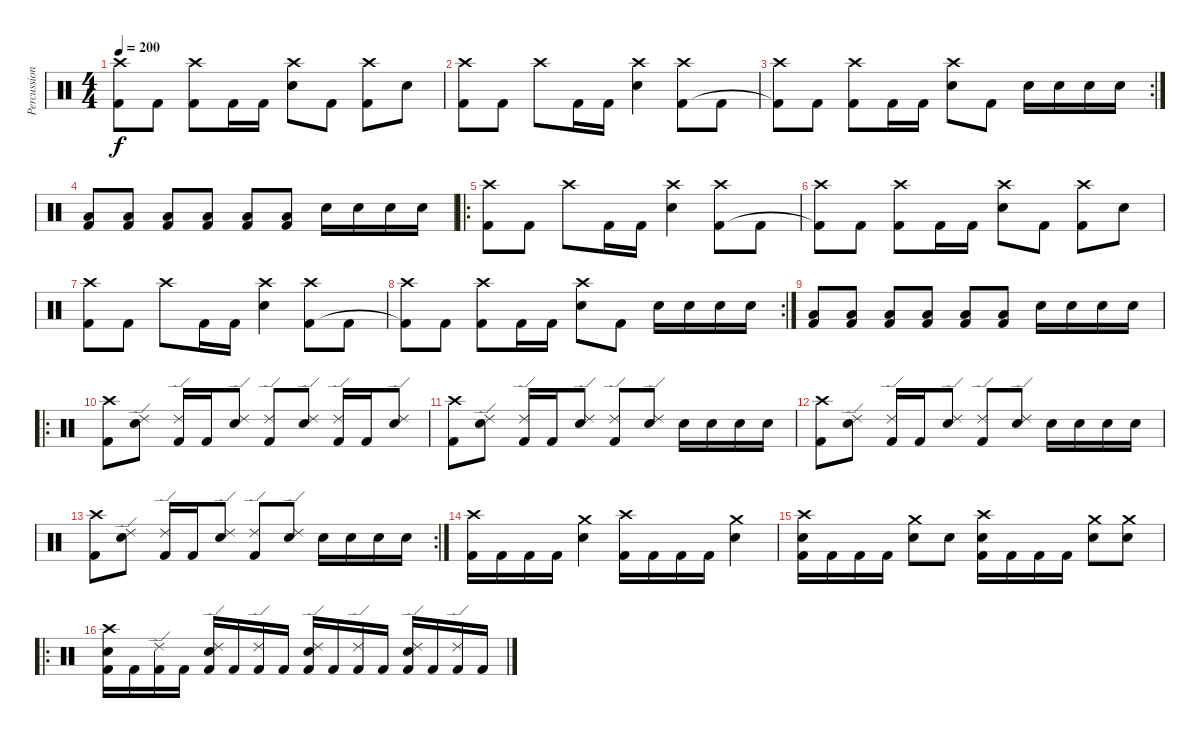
\track ("Percussions" "Percussion") {instrument percussion}
\staff {score}
\articulation defaults
\ts (4 4)
\tempo 200
\clef neutral
\ks c
("Crash high (hit)" "Kick (hit) 2"{t}).8{dy f} "Kick (hit) 2".8 ("Crash high (hit)" "Kick (hit) 2").8 "Kick (hit) 2".16 "Kick (hit) 2".16 ("Crash high (hit)" "Snare (hit) 2").8 "Kick (hit) 2".8 ("Crash high (hit)" "Kick (hit) 2").8 "Snare (hit) 2".8 |
("Crash high (hit)" "Kick (hit) 2").8 "Kick (hit) 2".8 "Crash high (hit)".8 "Kick (hit) 2".16 "Kick (hit) 2".16 ("Crash high (hit)" "Snare (hit) 2").4 ("Crash high (hit)" "Kick (hit) 2").8 "Kick (hit) 2".8 |
\rc 2
("Crash high (hit)" "Kick (hit) 2"{t}).8 "Kick (hit) 2".8 ("Crash high (hit)" "Kick (hit) 2").8 "Kick (hit) 2".16 "Kick (hit) 2".16 ("Crash high (hit)" "Snare (hit) 2").8 "Kick (hit) 2".8 "Snare (hit) 2".16 "Snare (hit) 2".16 "Snare (hit) 2".16 "Snare (hit) 2".16 |
("Low Floor Tom (hit)" "Kick (hit) 2").8 ("Low Floor Tom (hit)" "Kick (hit) 2").8 ("Low Floor Tom (hit)" "Kick (hit) 2").8 ("Low Floor Tom (hit)" "Kick (hit) 2").8 ("Low Floor Tom (hit)" "Kick (hit) 2").8 ("Low Floor Tom (hit)" "Kick (hit) 2").8 "Snare (hit) 2".16 "Snare (hit) 2".16 "Snare (hit) 2".16 "Snare (hit) 2".16 |
\ro
("Crash high (hit)" "Kick (hit) 2").8 "Kick (hit) 2".8 "Crash high (hit)".8 "Kick (hit) 2".16 "Kick (hit) 2".16 ("Crash high (hit)" "Snare (hit) 2").4 ("Crash high (hit)" "Kick (hit) 2").8 "Kick (hit) 2".8 |
("Crash high (hit)" "Kick (hit) 2"{t}).8 "Kick (hit) 2".8 ("Crash high (hit)" "Kick (hit) 2").8 "Kick (hit) 2".16 "Kick (hit) 2".16 ("Crash high (hit)" "Snare (hit) 2").8 "Kick (hit) 2".8 ("Crash high (hit)" "Kick (hit) 2").8 "Snare (hit) 2".8 |
("Crash high (hit)" "Kick (hit) 2").8 "Kick (hit) 2".8 "Crash high (hit)".8 "Kick (hit) 2".16 "Kick (hit) 2".16 ("Crash high (hit)" "Snare (hit) 2").4 ("Crash high (hit)" "Kick (hit) 2").8 "Kick (hit) 2".8 |
\rc 2
("Crash high (hit)" "Kick (hit) 2"{t}).8 "Kick (hit) 2".8 ("Crash high (hit)" "Kick (hit) 2").8 "Kick (hit) 2".16 "Kick (hit) 2".16 ("Crash high (hit)" "Snare (hit) 2").8 "Kick (hit) 2".8 "Snare (hit) 2".16 "Snare (hit) 2".16 "Snare (hit) 2".16 "Snare (hit) 2".16 |
("Low Floor Tom (hit)" "Kick (hit) 2").8 ("Low Floor Tom (hit)" "Kick (hit) 2").8 ("Low Floor Tom (hit)" "Kick (hit) 2").8 ("Low Floor Tom (hit)" "Kick (hit) 2").8 ("Low Floor Tom (hit)" "Kick (hit) 2").8 ("Low Floor Tom (hit)" "Kick (hit) 2").8 "Snare (hit) 2".16 "Snare (hit) 2".16 "Snare (hit) 2".16 "Snare (hit) 2".16 |
\ro
("Crash high (hit)" "Kick (hit) 2").8 ("Ride (edge) 2" "Snare (hit) 2").8 ("Ride (edge) 2" "Kick (hit) 2").16 "Kick (hit) 2".16 ("Ride (edge) 2" "Snare (hit) 2").8 ("Ride (edge) 2" "Kick (hit) 2").8 ("Ride (edge) 2" "Snare (hit) 2").8 ("Ride (edge) 2" "Kick (hit) 2").16 "Kick (hit) 2".16 ("Ride (edge) 2" "Snare (hit) 2").8 |
("Crash high (hit)" "Kick (hit) 2").8 ("Ride (edge) 2" "Snare (hit) 2").8 ("Ride (edge) 2" "Kick (hit) 2").16 "Kick (hit) 2".16 ("Ride (edge) 2" "Snare (hit) 2").8 ("Ride (edge) 2" "Kick (hit) 2").8 ("Ride (edge) 2" "Snare (hit) 2").8 "Snare (hit) 2".16 "Snare (hit) 2".16 "Snare (hit) 2".16 "Snare (hit) 2".16 |
("Crash high (hit)" "Kick (hit) 2").8 ("Ride (edge) 2" "Snare (hit) 2").8 ("Ride (edge) 2" "Kick (hit) 2").16 "Kick (hit) 2".16 ("Ride (edge) 2" "Snare (hit) 2").8 ("Ride (edge) 2" "Kick (hit) 2").8 ("Ride (edge) 2" "Snare (hit) 2").8 "Snare (hit) 2".16 "Snare (hit) 2".16 "Snare (hit) 2".16 "Snare (hit) 2".16 |
\rc 2
("Crash high (hit)" "Kick (hit) 2").8 ("Ride (edge) 2" "Snare (hit) 2").8 ("Ride (edge) 2" "Kick (hit) 2").16 "Kick (hit) 2".16 ("Ride (edge) 2" "Snare (hit) 2").8 ("Ride (edge) 2" "Kick (hit) 2").8 ("Ride (edge) 2" "Snare (hit) 2").8 "Snare (hit) 2".16 "Snare (hit) 2".16 "Snare (hit) 2".16 "Snare (hit) 2".16 |
("Crash high (hit)" "Kick (hit) 2").16 "Kick (hit) 2".16 "Kick (hit) 2".16 "Kick (hit) 2".16 ("Crash medium (hit)" "Snare (hit) 2").4 ("Crash high (hit)" "Kick (hit) 2").16 "Kick (hit) 2".16 "Kick (hit) 2".16 "Kick (hit) 2".16 ("Crash medium (hit)" "Snare (hit) 2").4 |
("Crash high (hit)" "Snare (hit) 2" "Kick (hit) 2").16 "Kick (hit) 2".16 "Kick (hit) 2".16 "Kick (hit) 2".16 ("Crash medium (hit)" "Snare (hit) 2").8 "Snare (hit) 2".8 ("Crash high (hit)" "Snare (hit) 2" "Kick (hit) 2").16 "Kick (hit) 2".16 "Kick (hit) 2".16 "Kick (hit) 2".16 ("Crash medium (hit)" "Snare (hit) 2").8 ("Crash medium (hit)" "Snare (hit) 2").8 |
\ro
("Crash high (hit)" "Snare (hit) 2" "Kick (hit) 2").16 "Kick (hit) 2".16 ("Ride (edge) 2" "Kick (hit) 2").16 "Kick (hit) 2".16 ("Ride (edge) 2" "Snare (hit) 2" "Kick (hit) 2").16 "Kick (hit) 2".16 ("Ride (edge) 2" "Kick (hit) 2").16 "Kick (hit) 2".16 ("Ride (edge) 2" "Snare (hit) 2" "Kick (hit) 2").16 "Kick (hit) 2".16 ("Ride (edge) 2" "Kick (hit) 2").16 "Kick (hit) 2".16 ("Ride (edge) 2" "Snare (hit) 2" "Kick (hit) 2").16 "Kick (hit) 2".16 ("Ride (edge) 2" "Kick (hit) 2").16 "Kick (hit) 2".16
